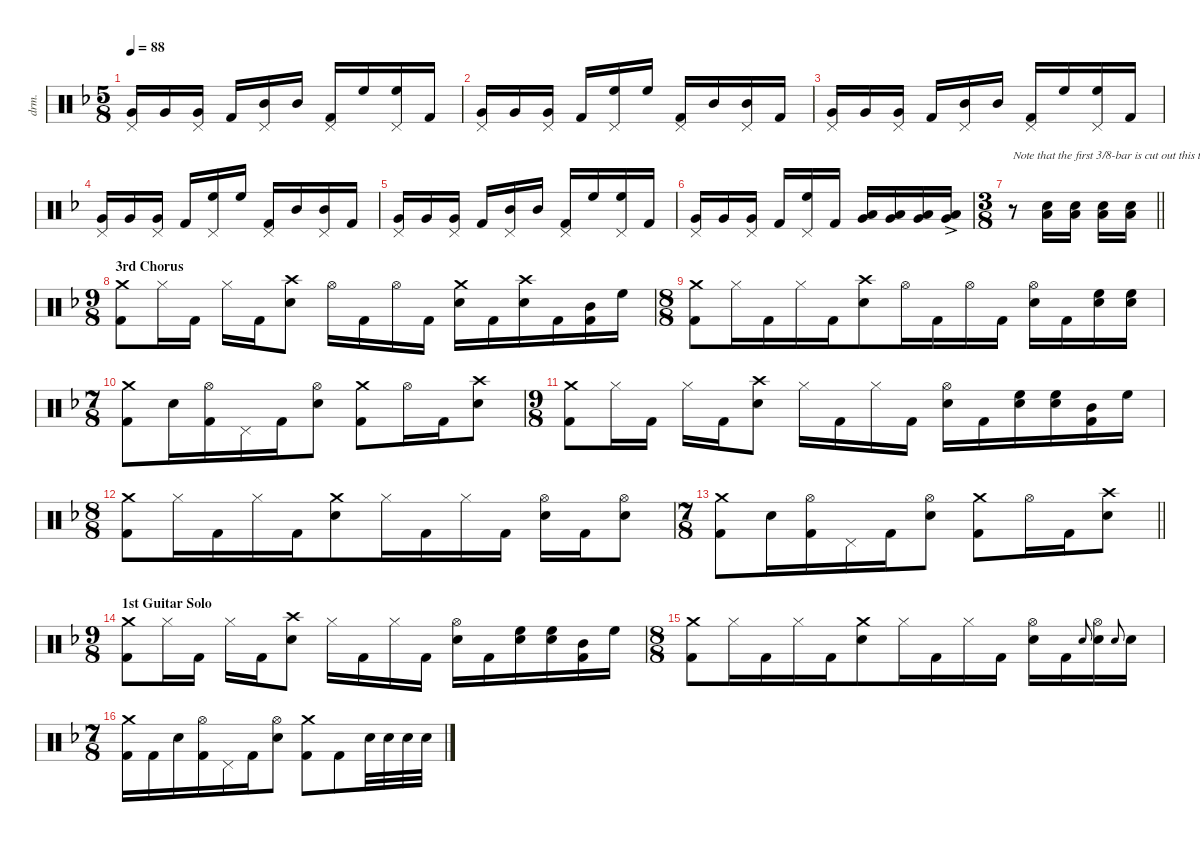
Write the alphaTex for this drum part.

\defaultSystemsLayout 4
\hideDynamics
\bracketExtendMode nobrackets
\otherSystemsTrackNameOrientation horizontal
\track ("Drums" "drm.") {instrument percussion}
\staff {score}
\articulation defaults
\ts (5 8)
\tempo 88
\clef neutral
\ks dminor
("Pedal Hi-Hat (hit)"{acc forcenatural} "Very Low Tom (hit)"{acc forcenatural}).16{dy f beam Up} "Very Low Tom (hit)"{acc forcenatural}.16{beam Up beam merge} ("Pedal Hi-Hat (hit)"{acc forcenatural} "Very Low Tom (hit)"{acc forcenatural}).16{beam Up beam split} "Kick (hit) 2"{acc forcenatural}.16{beam Up beam merge} ("Pedal Hi-Hat (hit)"{acc forcenatural} "Mid Tom (hit)"{acc forcenatural}).16{beam Up} "Mid Tom (hit)"{acc forcenatural}.16{beam Up beam split} ("Pedal Hi-Hat (hit)"{acc forcenatural} "Kick (hit) 2"{acc forcenatural}).16{beam Up} "High Floor Tom (hit)"{acc forcenatural}.16{beam Up beam merge} ("Pedal Hi-Hat (hit)"{acc forcenatural} "High Floor Tom (hit)"{acc forcenatural}).16{beam Up} "Kick (hit) 2"{acc forcenatural}.16{beam Up} |
("Pedal Hi-Hat (hit)"{acc forcenatural} "Very Low Tom (hit)"{acc forcenatural}).16{beam Up} "Very Low Tom (hit)"{acc forcenatural}.16{beam Up beam merge} ("Pedal Hi-Hat (hit)"{acc forcenatural} "Very Low Tom (hit)"{acc forcenatural}).16{beam Up beam split} "Kick (hit) 2"{acc forcenatural}.16{beam Up beam merge} ("Pedal Hi-Hat (hit)"{acc forcenatural} "High Floor Tom (hit)"{acc forcenatural}).16{beam Up} "High Floor Tom (hit)"{acc forcenatural}.16{beam Up beam split} ("Pedal Hi-Hat (hit)"{acc forcenatural} "Kick (hit) 2"{acc forcenatural}).16{beam Up beam merge} "Mid Tom (hit)"{acc forcenatural}.16{beam Up beam merge} ("Pedal Hi-Hat (hit)"{acc forcenatural} "Mid Tom (hit)"{acc forcenatural}).16{beam Up} "Kick (hit) 2"{acc forcenatural}.16{beam Up} |
("Pedal Hi-Hat (hit)"{acc forcenatural} "Very Low Tom (hit)"{acc forcenatural}).16{beam Up} "Very Low Tom (hit)"{acc forcenatural}.16{beam Up beam merge} ("Pedal Hi-Hat (hit)"{acc forcenatural} "Very Low Tom (hit)"{acc forcenatural}).16{beam Up beam split} "Kick (hit) 2"{acc forcenatural}.16{beam Up beam merge} ("Pedal Hi-Hat (hit)"{acc forcenatural} "Mid Tom (hit)"{acc forcenatural}).16{beam Up} "Mid Tom (hit)"{acc forcenatural}.16{beam Up beam split} ("Pedal Hi-Hat (hit)"{acc forcenatural} "Kick (hit) 2"{acc forcenatural}).16{beam Up} "High Floor Tom (hit)"{acc forcenatural}.16{beam Up beam merge} ("Pedal Hi-Hat (hit)"{acc forcenatural} "High Floor Tom (hit)"{acc forcenatural}).16{beam Up} "Kick (hit) 2"{acc forcenatural}.16{beam Up} |
("Pedal Hi-Hat (hit)"{acc forcenatural} "Very Low Tom (hit)"{acc forcenatural}).16{beam Up} "Very Low Tom (hit)"{acc forcenatural}.16{beam Up beam merge} ("Pedal Hi-Hat (hit)"{acc forcenatural} "Very Low Tom (hit)"{acc forcenatural}).16{beam Up beam split} "Kick (hit) 2"{acc forcenatural}.16{beam Up beam merge} ("Pedal Hi-Hat (hit)"{acc forcenatural} "High Floor Tom (hit)"{acc forcenatural}).16{beam Up} "High Floor Tom (hit)"{acc forcenatural}.16{beam Up beam split} ("Pedal Hi-Hat (hit)"{acc forcenatural} "Kick (hit) 2"{acc forcenatural}).16{beam Up beam merge} "Mid Tom (hit)"{acc forcenatural}.16{beam Up beam merge} ("Pedal Hi-Hat (hit)"{acc forcenatural} "Mid Tom (hit)"{acc forcenatural}).16{beam Up} "Kick (hit) 2"{acc forcenatural}.16{beam Up} |
("Pedal Hi-Hat (hit)"{acc forcenatural} "Very Low Tom (hit)"{acc forcenatural}).16{beam Up} "Very Low Tom (hit)"{acc forcenatural}.16{beam Up beam merge} ("Pedal Hi-Hat (hit)"{acc forcenatural} "Very Low Tom (hit)"{acc forcenatural}).16{beam Up beam split} "Kick (hit) 2"{acc forcenatural}.16{beam Up beam merge} ("Pedal Hi-Hat (hit)"{acc forcenatural} "Mid Tom (hit)"{acc forcenatural}).16{beam Up} "Mid Tom (hit)"{acc forcenatural}.16{beam Up beam split} ("Pedal Hi-Hat (hit)"{acc forcenatural} "Kick (hit) 2"{acc forcenatural}).16{beam Up} "High Floor Tom (hit)"{acc forcenatural}.16{beam Up beam merge} ("Pedal Hi-Hat (hit)"{acc forcenatural} "High Floor Tom (hit)"{acc forcenatural}).16{beam Up} "Kick (hit) 2"{acc forcenatural}.16{beam Up} |
("Pedal Hi-Hat (hit)"{acc forcenatural} "Very Low Tom (hit)"{acc forcenatural}).16{beam Up} "Very Low Tom (hit)"{acc forcenatural}.16{beam Up beam merge} ("Pedal Hi-Hat (hit)"{acc forcenatural} "Very Low Tom (hit)"{acc forcenatural}).16{beam Up beam split} "Kick (hit) 2"{acc forcenatural}.16{beam Up beam merge} ("Pedal Hi-Hat (hit)"{acc forcenatural} "High Floor Tom (hit)"{acc forcenatural}).16{beam Up} "Kick (hit) 2"{acc forcenatural}.16{beam Up} ("Low Tom (hit)"{acc forcenatural} "Very Low Tom (hit)"{acc forcenatural}).16{dy mp beam Up} ("Low Tom (hit)"{acc forcenatural} "Very Low Tom (hit)"{acc forcenatural}).16{dy mf beam Up beam merge} ("Low Tom (hit)"{acc forcenatural} "Very Low Tom (hit)"{acc forcenatural}).16{dy f beam Up} ("Low Tom (hit)"{ac acc forcenatural} "Very Low Tom (hit)"{ac acc forcenatural}).16{beam Up} |
\ts (3 8)
\beaming (8 2 2 2 2)
\barLineRight lightlight
r.8{txt "Note that the first 3/8-bar is cut out this time." beam Down} ("Low Tom (hit)"{acc forcenatural} "Snare (hit) 2"{acc forcenatural}).16{beam Down} ("Low Tom (hit)"{acc forcenatural} "Snare (hit) 2"{acc forcenatural}).16{beam Down} ("Low Tom (hit)"{acc forcenatural} "Snare (hit) 2"{acc forcenatural}).16{beam Down} ("Low Tom (hit)"{acc forcenatural} "Snare (hit) 2"{acc forcenatural}).16{beam Down} |
\ts (9 8)
\beaming (8 2 2 2 3)
\section ("" "3rd Chorus")
("Crash medium (hit)"{acc forcenatural} "Kick (hit) 2"{acc forcenatural}).8{beam Down} "Hi-Hat (closed)"{acc forcenatural}.16{beam Down} "Kick (hit) 2"{acc forcenatural}.16{beam Down} "Hi-Hat (closed)"{acc forcenatural}.16{beam Down} "Kick (hit) 2"{acc forcenatural}.16{beam Down} ("Crash high (hit)"{acc forcenatural} "Snare (hit) 2"{acc forcenatural}).8{beam Down} "Hi-Hat (open)"{acc forcenatural}.16{beam Down} "Kick (hit) 2"{acc forcenatural}.16{beam Down} "Hi-Hat (open)"{acc forcenatural}.16{beam Down} "Kick (hit) 2"{acc forcenatural}.16{beam Down} ("Crash medium (hit)"{acc forcenatural} "Snare (hit) 2"{acc forcenatural}).16{beam Down} "Kick (hit) 2"{acc forcenatural}.16{beam Down} ("Crash high (hit)"{acc forcenatural} "Snare (hit) 2"{acc forcenatural}).16{beam Down} "Kick (hit) 2"{acc forcenatural}.16{beam Down} ("Mid Tom (hit)"{acc forcenatural} "Kick (hit) 2"{acc forcenatural}).16{beam Down} "High Floor Tom (hit)"{acc forcenatural}.16{beam Down} |
\ts (8 8)
\beaming (8 2 2 2 2)
("Crash medium (hit)"{acc forcenatural} "Kick (hit) 2"{acc forcenatural}).8{beam Down beam merge} "Hi-Hat (closed)"{acc forcenatural}.16{beam Down} "Kick (hit) 2"{acc forcenatural}.16{beam Down beam merge} "Hi-Hat (closed)"{acc forcenatural}.16{beam Down} "Kick (hit) 2"{acc forcenatural}.16{beam Down} ("Crash high (hit)"{acc forcenatural} "Snare (hit) 2"{acc forcenatural}).8{beam Down beam merge} "Hi-Hat (open)"{acc forcenatural}.16{beam Down} "Kick (hit) 2"{acc forcenatural}.16{beam Down beam merge} "Hi-Hat (open)"{acc forcenatural}.16{beam Down} "Kick (hit) 2"{acc forcenatural}.16{beam Down} ("Hi-Hat (open)"{acc forcenatural} "Snare (hit) 2"{acc forcenatural}).16{beam Down} "Kick (hit) 2"{acc forcenatural}.16{beam Down beam merge} ("High Floor Tom (hit)"{acc forcenatural} "Snare (hit) 2"{acc forcenatural}).16{beam Down} ("High Floor Tom (hit)"{acc forcenatural} "Snare (hit) 2"{acc forcenatural}).16{beam Down} |
\ts (7 8)
\beaming (8 2 2 2 2)
("Crash medium (hit)"{acc forcenatural} "Kick (hit) 2"{acc forcenatural}).8{beam Down beam merge} "Snare (hit) 2"{acc forcenatural}.16{beam Down} ("Hi-Hat (open)"{acc forcenatural} "Kick (hit) 2"{acc forcenatural}).16{beam Down beam merge} "Pedal Hi-Hat (hit)"{acc forcenatural}.16{beam Down} "Kick (hit) 2"{acc forcenatural}.16{beam Down beam merge} ("Hi-Hat (open)"{acc forcenatural} "Snare (hit) 2"{acc forcenatural}).8{beam Down beam split} ("Crash medium (hit)"{acc forcenatural} "Kick (hit) 2"{acc forcenatural}).8{beam Down beam merge} "Hi-Hat (open)"{acc forcenatural}.16{beam Down} "Kick (hit) 2"{acc forcenatural}.16{beam Down beam merge} ("Crash high (hit)"{acc forcenatural} "Snare (hit) 2"{acc forcenatural}).8{beam Down} |
\ts (9 8)
\beaming (8 2 2 2 3)
("Crash medium (hit)"{acc forcenatural} "Kick (hit) 2"{acc forcenatural}).8{beam Down} "Hi-Hat (closed)"{acc forcenatural}.16{beam Down} "Kick (hit) 2"{acc forcenatural}.16{beam Down} "Hi-Hat (closed)"{acc forcenatural}.16{beam Down} "Kick (hit) 2"{acc forcenatural}.16{beam Down} ("Crash high (hit)"{acc forcenatural} "Snare (hit) 2"{acc forcenatural}).8{beam Down} "Hi-Hat (closed)"{acc forcenatural}.16{beam Down} "Kick (hit) 2"{acc forcenatural}.16{beam Down} "Hi-Hat (closed)"{acc forcenatural}.16{beam Down} "Kick (hit) 2"{acc forcenatural}.16{beam Down} ("Hi-Hat (open)"{acc forcenatural} "Snare (hit) 2"{acc forcenatural}).16{beam Down} "Kick (hit) 2"{acc forcenatural}.16{beam Down} ("High Floor Tom (hit)"{acc forcenatural} "Snare (hit) 2"{acc forcenatural}).16{beam Down} ("High Floor Tom (hit)"{acc forcenatural} "Snare (hit) 2"{acc forcenatural}).16{beam Down} ("Mid Tom (hit)"{acc forcenatural} "Kick (hit) 2"{acc forcenatural}).16{beam Down} "High Floor Tom (hit)"{acc forcenatural}.16{beam Down} |
\ts (8 8)
\beaming (8 2 2 2 2)
("Crash medium (hit)"{acc forcenatural} "Kick (hit) 2"{acc forcenatural}).8{beam Down beam merge} "Hi-Hat (closed)"{acc forcenatural}.16{beam Down} "Kick (hit) 2"{acc forcenatural}.16{beam Down beam merge} "Hi-Hat (closed)"{acc forcenatural}.16{beam Down} "Kick (hit) 2"{acc forcenatural}.16{beam Down} ("Crash medium (hit)"{acc forcenatural} "Snare (hit) 2"{acc forcenatural}).8{beam Down beam merge} "Hi-Hat (closed)"{acc forcenatural}.16{beam Down} "Kick (hit) 2"{acc forcenatural}.16{beam Down beam merge} "Hi-Hat (closed)"{acc forcenatural}.16{beam Down} "Kick (hit) 2"{acc forcenatural}.16{beam Down} ("Hi-Hat (open)"{acc forcenatural} "Snare (hit) 2"{acc forcenatural}).16{beam Down} "Kick (hit) 2"{acc forcenatural}.16{beam Down beam merge} ("Hi-Hat (open)"{acc forcenatural} "Snare (hit) 2"{acc forcenatural}).8{beam Down} |
\ts (7 8)
\beaming (8 2 2 2 2)
\barLineRight lightlight
("Crash medium (hit)"{acc forcenatural} "Kick (hit) 2"{acc forcenatural}).8{beam Down beam merge} "Snare (hit) 2"{acc forcenatural}.16{beam Down} ("Hi-Hat (open)"{acc forcenatural} "Kick (hit) 2"{acc forcenatural}).16{beam Down beam merge} "Pedal Hi-Hat (hit)"{acc forcenatural}.16{beam Down} "Kick (hit) 2"{acc forcenatural}.16{beam Down beam merge} ("Hi-Hat (open)"{acc forcenatural} "Snare (hit) 2"{acc forcenatural}).8{beam Down beam split} ("Crash medium (hit)"{acc forcenatural} "Kick (hit) 2"{acc forcenatural}).8{beam Down beam merge} "Hi-Hat (open)"{acc forcenatural}.16{beam Down} "Kick (hit) 2"{acc forcenatural}.16{beam Down beam merge} ("Crash high (hit)"{acc forcenatural} "Snare (hit) 2"{acc forcenatural}).8{beam Down} |
\ts (9 8)
\beaming (8 2 2 2 3)
\section ("" "1st Guitar Solo")
("Crash medium (hit)"{acc forcenatural} "Kick (hit) 2"{acc forcenatural}).8{beam Down} "Hi-Hat (closed)"{acc forcenatural}.16{beam Down} "Kick (hit) 2"{acc forcenatural}.16{beam Down} "Hi-Hat (closed)"{acc forcenatural}.16{beam Down} "Kick (hit) 2"{acc forcenatural}.16{beam Down} ("Crash high (hit)"{acc forcenatural} "Snare (hit) 2"{acc forcenatural}).8{beam Down} "Hi-Hat (closed)"{acc forcenatural}.16{beam Down} "Kick (hit) 2"{acc forcenatural}.16{beam Down} "Hi-Hat (closed)"{acc forcenatural}.16{beam Down} "Kick (hit) 2"{acc forcenatural}.16{beam Down} ("Hi-Hat (open)"{acc forcenatural} "Snare (hit) 2"{acc forcenatural}).16{beam Down} "Kick (hit) 2"{acc forcenatural}.16{beam Down} ("High Floor Tom (hit)"{acc forcenatural} "Snare (hit) 2"{acc forcenatural}).16{beam Down} ("High Floor Tom (hit)"{acc forcenatural} "Snare (hit) 2"{acc forcenatural}).16{beam Down} ("Mid Tom (hit)"{acc forcenatural} "Kick (hit) 2"{acc forcenatural}).16{beam Down} "High Floor Tom (hit)"{acc forcenatural}.16{beam Down} |
\ts (8 8)
\beaming (8 2 2 2 2)
("Crash medium (hit)"{acc forcenatural} "Kick (hit) 2"{acc forcenatural}).8{beam Down beam merge} "Hi-Hat (closed)"{acc forcenatural}.16{beam Down} "Kick (hit) 2"{acc forcenatural}.16{beam Down beam merge} "Hi-Hat (closed)"{acc forcenatural}.16{beam Down} "Kick (hit) 2"{acc forcenatural}.16{beam Down} ("Crash medium (hit)"{acc forcenatural} "Snare (hit) 2"{acc forcenatural}).8{beam Down beam merge} "Hi-Hat (closed)"{acc forcenatural}.16{beam Down} "Kick (hit) 2"{acc forcenatural}.16{beam Down beam merge} "Hi-Hat (closed)"{acc forcenatural}.16{beam Down} "Kick (hit) 2"{acc forcenatural}.16{beam Down} ("Hi-Hat (open)"{acc forcenatural} "Snare (hit) 2"{acc forcenatural}).16{beam Down} "Kick (hit) 2"{acc forcenatural}.16{beam Down} "Snare (hit) 2"{acc forcenatural}.8{gr onbeat dy mf beam Up beam merge} ("Hi-Hat (open)"{acc forcenatural} "Snare (hit) 2"{acc forcenatural}).16{dy f beam Down} "Snare (hit) 2"{acc forcenatural}.8{gr onbeat dy mf beam Up} "Snare (hit) 2"{acc forcenatural}.16{dy f beam Down} |
\ts (7 8)
\beaming (8 2 2 2 2)
("Crash medium (hit)"{acc forcenatural} "Kick (hit) 2"{acc forcenatural}).16{beam Down} "Kick (hit) 2"{acc forcenatural}.16{beam Down beam merge} "Snare (hit) 2"{acc forcenatural}.16{beam Down} ("Hi-Hat (open)"{acc forcenatural} "Kick (hit) 2"{acc forcenatural}).16{beam Down beam merge} "Pedal Hi-Hat (hit)"{acc forcenatural}.16{beam Down} "Kick (hit) 2"{acc forcenatural}.16{beam Down beam merge} ("Hi-Hat (open)"{acc forcenatural} "Snare (hit) 2"{acc forcenatural}).8{beam Down beam split} ("Crash medium (hit)"{acc forcenatural} "Kick (hit) 2"{acc forcenatural}).8{beam Down} "Kick (hit) 2"{acc forcenatural}.8{beam Down beam merge} "Snare (hit) 2"{acc forcenatural}.32{beam Down} "Snare (hit) 2"{acc forcenatural}.32{beam Down} "Snare (hit) 2"{acc forcenatural}.32{beam Down} "Snare (hit) 2"{acc forcenatural}.32{beam Down}
